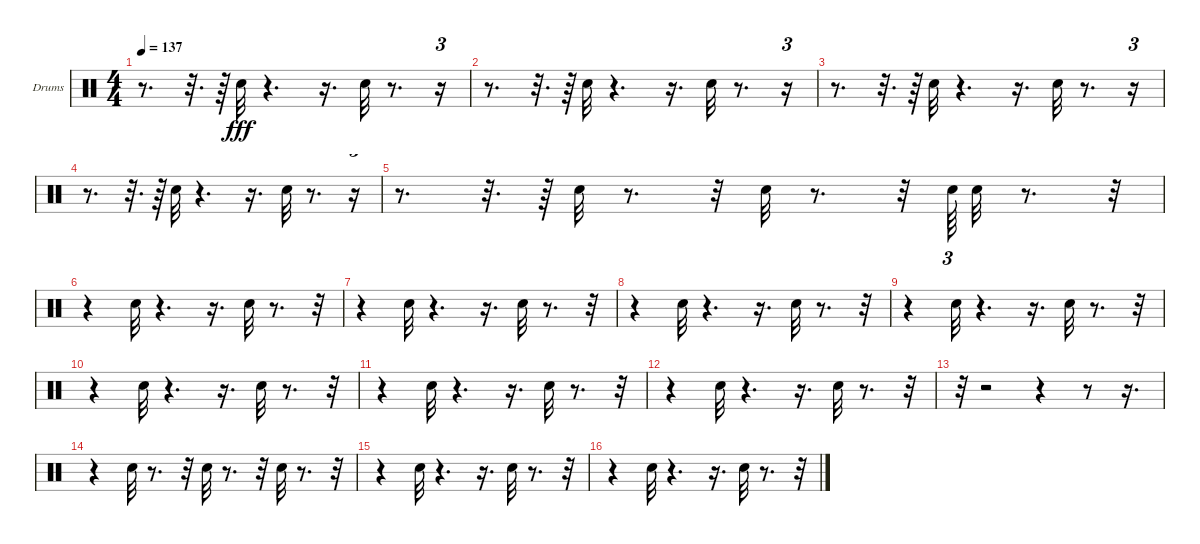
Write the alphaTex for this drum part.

\bracketExtendMode groupsimilarinstruments
\firstSystemTrackNameOrientation horizontal
\otherSystemsTrackNameOrientation horizontal
\track ("Drumkit" "Drums") {instrument percussion}
\staff {score}
\articulation defaults
\ts (4 4)
\tempo 137
\clef neutral
\ks c
r.8{d dy fff} r.32{d} r.64 "Snare (hit) 2".32 r.4{d} r.16{d} "Snare (hit) 2".32 r.8{d} r.16{tu (3 2)} |
r.8{d} r.32{d} r.64 "Snare (hit) 2".32 r.4{d} r.16{d} "Snare (hit) 2".32 r.8{d} r.16{tu (3 2)} |
r.8{d} r.32{d} r.64 "Snare (hit) 2".32 r.4{d} r.16{d} "Snare (hit) 2".32 r.8{d} r.16{tu (3 2)} |
r.8{d} r.32{d} r.64 "Snare (hit) 2".32 r.4{d} r.16{d} "Snare (hit) 2".32 r.8{d} r.16{tu (3 2)} |
r.8{d} r.32{d} r.64 "Snare (hit) 2".32 r.8{d} r.32 "Snare (hit) 2".32 r.8{d} r.32 "Snare (hit) 2".64{tu (3 2)} "Snare (hit) 2".32 r.8{d} r.32 |
r.4 "Snare (hit) 2".32 r.4{d} r.16{d} "Snare (hit) 2".32 r.8{d} r.32 |
r.4 "Snare (hit) 2".32 r.4{d} r.16{d} "Snare (hit) 2".32 r.8{d} r.32 |
r.4 "Snare (hit) 2".32 r.4{d} r.16{d} "Snare (hit) 2".32 r.8{d} r.32 |
r.4 "Snare (hit) 2".32 r.4{d} r.16{d} "Snare (hit) 2".32 r.8{d} r.32 |
r.4 "Snare (hit) 2".32 r.4{d} r.16{d} "Snare (hit) 2".32 r.8{d} r.32 |
r.4 "Snare (hit) 2".32 r.4{d} r.16{d} "Snare (hit) 2".32 r.8{d} r.32 |
r.4 "Snare (hit) 2".32 r.4{d} r.16{d} "Snare (hit) 2".32 r.8{d} r.32 |
r.32 r.2 r.4 r.8 r.16{d} |
r.4 "Snare (hit) 2".32 r.8{d} r.32 "Snare (hit) 2".32 r.8{d} r.32 "Snare (hit) 2".32 r.8{d} r.32 |
r.4 "Snare (hit) 2".32 r.4{d} r.16{d} "Snare (hit) 2".32 r.8{d} r.32 |
r.4 "Snare (hit) 2".32 r.4{d} r.16{d} "Snare (hit) 2".32 r.8{d} r.32
